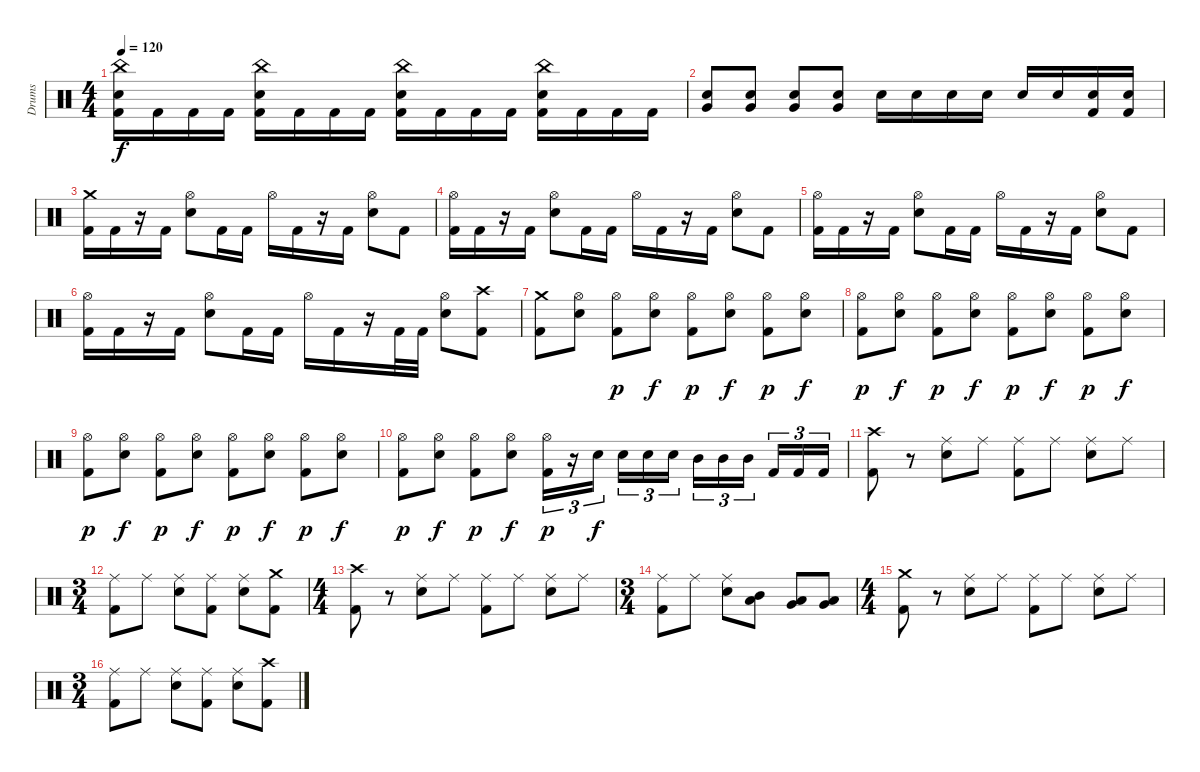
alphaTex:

\track ("Drums" "Drums") {instrument percussion}
\staff {score}
\articulation defaults
\ts (4 4)
\tempo 120
\clef neutral
\ks c
("China (hit)" "Snare (hit) 2" "Kick (hit) 2").16{dy f} "Kick (hit) 2".16 "Kick (hit) 2".16 "Kick (hit) 2".16 ("China (hit)" "Snare (hit) 2" "Kick (hit) 2").16 "Kick (hit) 2".16 "Kick (hit) 2".16 "Kick (hit) 2".16 ("China (hit)" "Snare (hit) 2" "Kick (hit) 2").16 "Kick (hit) 2".16 "Kick (hit) 2".16 "Kick (hit) 2".16 ("China (hit)" "Snare (hit) 2" "Kick (hit) 2").16 "Kick (hit) 2".16 "Kick (hit) 2".16 "Kick (hit) 2".16 |
("Snare (hit) 2" "Very Low Tom (hit)").8 ("Snare (hit) 2" "Very Low Tom (hit)").8 ("Snare (hit) 2" "Very Low Tom (hit)").8 ("Snare (hit) 2" "Very Low Tom (hit)").8 "Snare (hit) 2".16 "Snare (hit) 2".16 "Snare (hit) 2".16 "Snare (hit) 2".16 "Snare (hit) 2".16 "Snare (hit) 2".16 ("Snare (hit) 2" "Kick (hit) 2").16 ("Snare (hit) 2" "Kick (hit) 2").16 |
\section ("" "")
("Crash medium (hit)" "Kick (hit) 2").16 "Kick (hit) 2".16 r.16 "Kick (hit) 2".16 ("Hi-Hat (open)" "Snare (hit) 2").8 "Kick (hit) 2".16 "Kick (hit) 2".16 "Hi-Hat (open)".16 "Kick (hit) 2".16 r.16 "Kick (hit) 2".16 ("Hi-Hat (open)" "Snare (hit) 2").8 "Kick (hit) 2".8 |
("Hi-Hat (open)" "Kick (hit) 2").16 "Kick (hit) 2".16 r.16 "Kick (hit) 2".16 ("Hi-Hat (open)" "Snare (hit) 2").8 "Kick (hit) 2".16 "Kick (hit) 2".16 "Hi-Hat (open)".16 "Kick (hit) 2".16 r.16 "Kick (hit) 2".16 ("Hi-Hat (open)" "Snare (hit) 2").8 "Kick (hit) 2".8 |
("Hi-Hat (open)" "Kick (hit) 2").16 "Kick (hit) 2".16 r.16 "Kick (hit) 2".16 ("Hi-Hat (open)" "Snare (hit) 2").8 "Kick (hit) 2".16 "Kick (hit) 2".16 "Hi-Hat (open)".16 "Kick (hit) 2".16 r.16 "Kick (hit) 2".16 ("Hi-Hat (open)" "Snare (hit) 2").8 "Kick (hit) 2".8 |
("Hi-Hat (open)" "Kick (hit) 2").16 "Kick (hit) 2".16 r.16 "Kick (hit) 2".16 ("Hi-Hat (open)" "Snare (hit) 2").8 "Kick (hit) 2".16 "Kick (hit) 2".16 "Hi-Hat (open)".16 "Kick (hit) 2".16 r.16 "Kick (hit) 2".32 "Kick (hit) 2".32 ("Hi-Hat (open)" "Snare (hit) 2").8 ("Crash high (hit)" "Kick (hit) 2").8 |
("Crash medium (hit)" "Kick (hit) 2").8 ("Hi-Hat (open)" "Snare (hit) 2").8 ("Hi-Hat (open)" "Kick (hit) 2").8{dy p} ("Hi-Hat (open)" "Snare (hit) 2").8{dy f} ("Hi-Hat (open)" "Kick (hit) 2").8{dy p} ("Hi-Hat (open)" "Snare (hit) 2").8{dy f} ("Hi-Hat (open)" "Kick (hit) 2").8{dy p} ("Hi-Hat (open)" "Snare (hit) 2").8{dy f} |
("Hi-Hat (open)" "Kick (hit) 2").8{dy p} ("Hi-Hat (open)" "Snare (hit) 2").8{dy f} ("Hi-Hat (open)" "Kick (hit) 2").8{dy p} ("Hi-Hat (open)" "Snare (hit) 2").8{dy f} ("Hi-Hat (open)" "Kick (hit) 2").8{dy p} ("Hi-Hat (open)" "Snare (hit) 2").8{dy f} ("Hi-Hat (open)" "Kick (hit) 2").8{dy p} ("Hi-Hat (open)" "Snare (hit) 2").8{dy f} |
("Hi-Hat (open)" "Kick (hit) 2").8{dy p} ("Hi-Hat (open)" "Snare (hit) 2").8{dy f} ("Hi-Hat (open)" "Kick (hit) 2").8{dy p} ("Hi-Hat (open)" "Snare (hit) 2").8{dy f} ("Hi-Hat (open)" "Kick (hit) 2").8{dy p} ("Hi-Hat (open)" "Snare (hit) 2").8{dy f} ("Hi-Hat (open)" "Kick (hit) 2").8{dy p} ("Hi-Hat (open)" "Snare (hit) 2").8{dy f} |
("Hi-Hat (open)" "Kick (hit) 2").8{dy p} ("Hi-Hat (open)" "Snare (hit) 2").8{dy f} ("Hi-Hat (open)" "Kick (hit) 2").8{dy p} ("Hi-Hat (open)" "Snare (hit) 2").8{dy f} ("Hi-Hat (open)" "Kick (hit) 2").16{tu (3 2) dy p} r.16{tu (3 2)} "Snare (hit) 2".16{tu (3 2) dy f} "Snare (hit) 2".16{tu (3 2)} "Snare (hit) 2".16{tu (3 2)} "Snare (hit) 2".16{tu (3 2)} "Mid Tom (hit)".16{tu (3 2)} "Mid Tom (hit)".16{tu (3 2)} "Mid Tom (hit)".16{tu (3 2)} "Kick (hit) 2".16{tu (3 2)} "Kick (hit) 2".16{tu (3 2)} "Kick (hit) 2".16{tu (3 2)} |
\section ("" "")
("Crash high (hit)" "Kick (hit) 2").8 r.8 ("Ride (middle)" "Snare (hit) 2").8 "Ride (middle)".8 ("Ride (middle)" "Kick (hit) 2").8 "Ride (middle)".8 ("Ride (middle)" "Snare (hit) 2").8 "Ride (middle)".8 |
\ts (3 4)
("Ride (middle)" "Kick (hit) 2").8 "Ride (middle)".8 ("Ride (middle)" "Snare (hit) 2").8 ("Ride (middle)" "Kick (hit) 2").8 ("Ride (middle)" "Snare (hit) 2").8 ("Crash medium (hit)" "Kick (hit) 2").8 |
\ts (4 4)
("Crash high (hit)" "Kick (hit) 2").8 r.8 ("Ride (middle)" "Snare (hit) 2").8 "Ride (middle)".8 ("Ride (middle)" "Kick (hit) 2").8 "Ride (middle)".8 ("Ride (middle)" "Snare (hit) 2").8 "Ride (middle)".8 |
\ts (3 4)
("Ride (middle)" "Kick (hit) 2").8 "Ride (middle)".8 ("Ride (middle)" "Snare (hit) 2").8 ("Mid Tom (hit)" "Low Tom (hit)").8 ("Low Tom (hit)" "Very Low Tom (hit)").8 ("Very Low Tom (hit)" "Low Floor Tom (hit)").8 |
\ts (4 4)
("Crash medium (hit)" "Kick (hit) 2").8 r.8 ("Ride (middle)" "Snare (hit) 2").8 "Ride (middle)".8 ("Ride (middle)" "Kick (hit) 2").8 "Ride (middle)".8 ("Ride (middle)" "Snare (hit) 2").8 "Ride (middle)".8 |
\ts (3 4)
("Ride (middle)" "Kick (hit) 2").8 "Ride (middle)".8 ("Ride (middle)" "Snare (hit) 2").8 ("Ride (middle)" "Kick (hit) 2").8 ("Ride (middle)" "Snare (hit) 2").8 ("Crash high (hit)" "Kick (hit) 2").8
